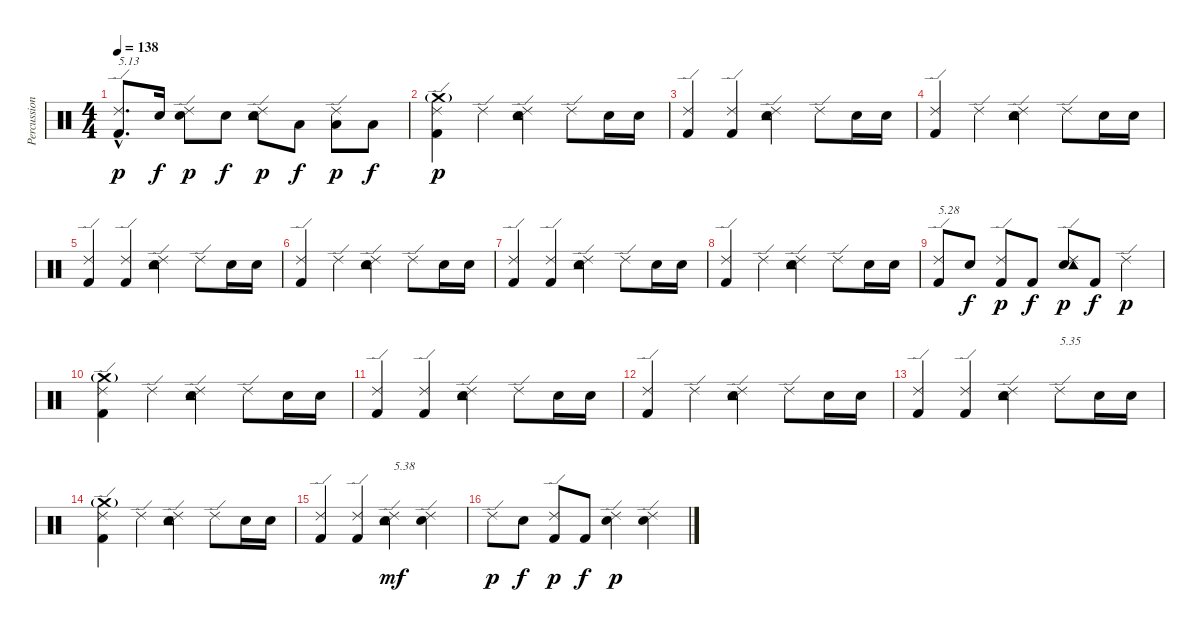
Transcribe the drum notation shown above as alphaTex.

\track ("Percussions" "Percussion") {instrument percussion}
\staff {score}
\articulation defaults
\ts (4 4)
\tempo 138
\clef neutral
\ks c
("Kick (hit) 2"{hac} "Ride (edge) 2"{hac}).8{d txt "5.13" dy p} "Snare (hit) 2".16{dy f} ("Snare (hit) 2" "Ride (edge) 2").8{dy p} "Snare (hit) 2".8{dy f} ("Snare (hit) 2" "Tambourine (hit)" "Ride (edge) 2").8{dy p} "Low Floor Tom (hit)".8{dy f} ("Low Floor Tom (hit)" "Ride (edge) 2").8{dy p} "Low Floor Tom (hit)".8{dy f} |
("Kick (hit) 2" "Crash medium (hit)"{g} "Ride (edge) 2").4{dy p} "Ride (edge) 2".4 ("Snare (hit) 2" "Tambourine (hit)" "Ride (edge) 2").4 "Ride (edge) 2".8 "Snare (hit) 2".16 "Snare (hit) 2".16 |
("Kick (hit) 2" "Ride (edge) 2").4 ("Kick (hit) 2" "Ride (edge) 2").4 ("Snare (hit) 2" "Tambourine (hit)" "Ride (edge) 2").4 "Ride (edge) 2".8 "Snare (hit) 2".16 "Snare (hit) 2".16 |
("Kick (hit) 2" "Ride (edge) 2").4 "Ride (edge) 2".4 ("Snare (hit) 2" "Tambourine (hit)" "Ride (edge) 2").4 "Ride (edge) 2".8 "Snare (hit) 2".16 "Snare (hit) 2".16 |
("Kick (hit) 2" "Ride (edge) 2").4 ("Kick (hit) 2" "Ride (edge) 2").4 ("Snare (hit) 2" "Tambourine (hit)" "Ride (edge) 2").4 "Ride (edge) 2".8 "Snare (hit) 2".16 "Snare (hit) 2".16 |
("Kick (hit) 2" "Ride (edge) 2").4 "Ride (edge) 2".4 ("Snare (hit) 2" "Tambourine (hit)" "Ride (edge) 2").4 "Ride (edge) 2".8 "Snare (hit) 2".16 "Snare (hit) 2".16 |
("Kick (hit) 2" "Ride (edge) 2").4 ("Kick (hit) 2" "Ride (edge) 2").4 ("Snare (hit) 2" "Tambourine (hit)" "Ride (edge) 2").4 "Ride (edge) 2".8 "Snare (hit) 2".16 "Snare (hit) 2".16 |
("Kick (hit) 2" "Ride (edge) 2").4 "Ride (edge) 2".4 ("Snare (hit) 2" "Tambourine (hit)" "Ride (edge) 2").4 "Ride (edge) 2".8 "Snare (hit) 2".16 "Snare (hit) 2".16 |
("Kick (hit) 2" "Ride (edge) 2").8{txt "5.28"} "Snare (hit) 2".8{dy f} ("Kick (hit) 2" "Ride (edge) 2").8{dy p} "Kick (hit) 2".8{dy f} ("Snare (hit) 2" "Tambourine (hit)" "Ride (edge) 2").8{dy p} "Kick (hit) 2".8{dy f} "Ride (edge) 2".4{dy p} |
("Kick (hit) 2" "Crash medium (hit)"{g} "Ride (edge) 2").4 "Ride (edge) 2".4 ("Snare (hit) 2" "Tambourine (hit)" "Ride (edge) 2").4 "Ride (edge) 2".8 "Snare (hit) 2".16 "Snare (hit) 2".16 |
("Kick (hit) 2" "Ride (edge) 2").4 ("Kick (hit) 2" "Ride (edge) 2").4 ("Snare (hit) 2" "Tambourine (hit)" "Ride (edge) 2").4 "Ride (edge) 2".8 "Snare (hit) 2".16 "Snare (hit) 2".16 |
("Kick (hit) 2" "Ride (edge) 2").4 "Ride (edge) 2".4 ("Snare (hit) 2" "Tambourine (hit)" "Ride (edge) 2").4 "Ride (edge) 2".8 "Snare (hit) 2".16 "Snare (hit) 2".16 |
("Kick (hit) 2" "Ride (edge) 2").4 ("Kick (hit) 2" "Ride (edge) 2").4 ("Snare (hit) 2" "Tambourine (hit)" "Ride (edge) 2").4 "Ride (edge) 2".8{txt "5.35"} "Snare (hit) 2".16 "Snare (hit) 2".16 |
("Kick (hit) 2" "Crash medium (hit)"{g} "Ride (edge) 2").4 "Ride (edge) 2".4 ("Snare (hit) 2" "Tambourine (hit)" "Ride (edge) 2").4 "Ride (edge) 2".8 "Snare (hit) 2".16 "Snare (hit) 2".16 |
("Kick (hit) 2" "Ride (edge) 2").4 ("Kick (hit) 2" "Ride (edge) 2").4 ("Snare (hit) 2" "Tambourine (hit)" "Ride (edge) 2").4{txt "5.38" dy mf} ("Snare (hit) 2" "Ride (edge) 2").4 |
"Ride (edge) 2".8{dy p} "Snare (hit) 2".8{dy f} ("Kick (hit) 2" "Ride (edge) 2").8{dy p} "Kick (hit) 2".8{dy f} ("Snare (hit) 2" "Ride (edge) 2").4{dy p} ("Snare (hit) 2" "Ride (edge) 2").4
